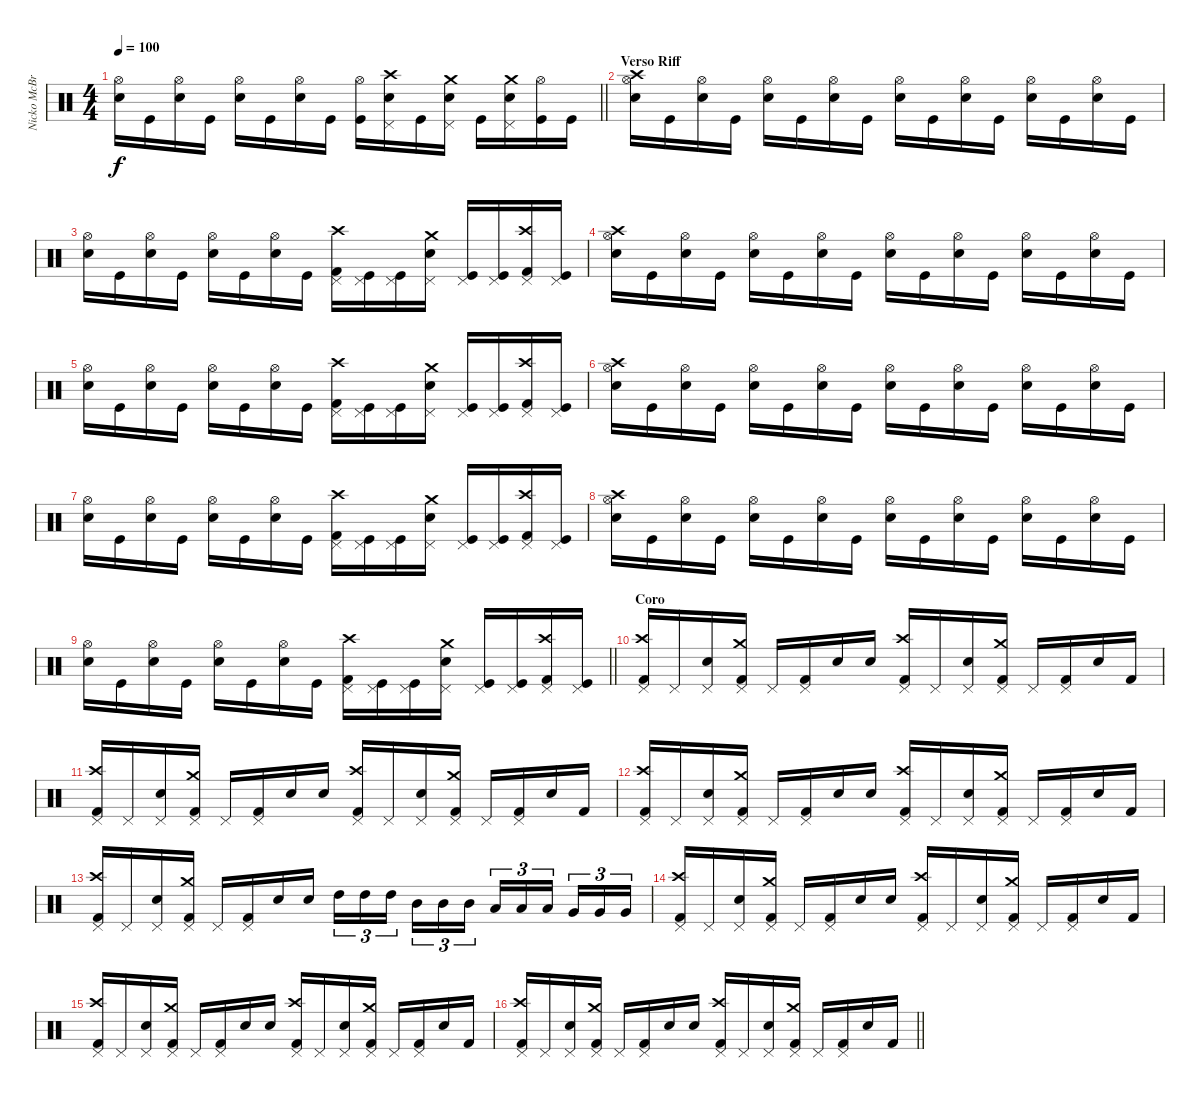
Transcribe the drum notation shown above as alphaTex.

\track ("Nicko McBrain" "Nicko McBr") {instrument percussion}
\staff {score}
\articulation defaults
\ts (4 4)
\tempo 100
\clef neutral
\barLineRight lightlight
\ks c
("Snare (hit) 2" "Hi-Hat (open)").16{dy f} "Kick (hit)".16 ("Snare (hit) 2" "Hi-Hat (open)").16 "Kick (hit)".16 ("Snare (hit) 2" "Hi-Hat (open)").16 "Kick (hit)".16 ("Snare (hit) 2" "Hi-Hat (open)").16 "Kick (hit)".16 ("Kick (hit)" "Hi-Hat (open)").16 ("Snare (hit) 2" "Pedal Hi-Hat (hit)" "Crash high (hit)").16 "Kick (hit)".16 ("Snare (hit) 2" "Pedal Hi-Hat (hit)" "Crash medium (hit)").16 "Kick (hit)".16 ("Snare (hit) 2" "Pedal Hi-Hat (hit)" "Crash medium (hit)").16 ("Kick (hit)" "Hi-Hat (open)").16 "Kick (hit)".16 |
\section ("" "Verso Riff")
("Snare (hit) 2" "Hi-Hat (open)" "Crash high (hit)").16 "Kick (hit)".16 ("Snare (hit) 2" "Hi-Hat (open)").16 "Kick (hit)".16 ("Snare (hit) 2" "Hi-Hat (open)").16 "Kick (hit)".16 ("Snare (hit) 2" "Hi-Hat (open)").16 "Kick (hit)".16 ("Snare (hit) 2" "Hi-Hat (open)").16 "Kick (hit)".16 ("Snare (hit) 2" "Hi-Hat (open)").16 "Kick (hit)".16 ("Snare (hit) 2" "Hi-Hat (open)").16 "Kick (hit)".16 ("Snare (hit) 2" "Hi-Hat (open)").16 "Kick (hit)".16 |
("Snare (hit) 2" "Hi-Hat (open)").16 "Kick (hit)".16 ("Snare (hit) 2" "Hi-Hat (open)").16 "Kick (hit)".16 ("Snare (hit) 2" "Hi-Hat (open)").16 "Kick (hit)".16 ("Snare (hit) 2" "Hi-Hat (open)").16 "Kick (hit)".16 ("Kick (hit) 2" "Pedal Hi-Hat (hit)" "Crash high (hit)").16 ("Kick (hit)" "Pedal Hi-Hat (hit)").16 ("Kick (hit)" "Pedal Hi-Hat (hit)").16 ("Snare (hit) 2" "Pedal Hi-Hat (hit)" "Crash medium (hit)").16 ("Kick (hit)" "Pedal Hi-Hat (hit)").16 ("Kick (hit)" "Pedal Hi-Hat (hit)").16 ("Kick (hit) 2" "Pedal Hi-Hat (hit)" "Crash high (hit)").16 ("Kick (hit)" "Pedal Hi-Hat (hit)").16 |
("Snare (hit) 2" "Hi-Hat (open)" "Crash high (hit)").16 "Kick (hit)".16 ("Snare (hit) 2" "Hi-Hat (open)").16 "Kick (hit)".16 ("Snare (hit) 2" "Hi-Hat (open)").16 "Kick (hit)".16 ("Snare (hit) 2" "Hi-Hat (open)").16 "Kick (hit)".16 ("Snare (hit) 2" "Hi-Hat (open)").16 "Kick (hit)".16 ("Snare (hit) 2" "Hi-Hat (open)").16 "Kick (hit)".16 ("Snare (hit) 2" "Hi-Hat (open)").16 "Kick (hit)".16 ("Snare (hit) 2" "Hi-Hat (open)").16 "Kick (hit)".16 |
("Snare (hit) 2" "Hi-Hat (open)").16 "Kick (hit)".16 ("Snare (hit) 2" "Hi-Hat (open)").16 "Kick (hit)".16 ("Snare (hit) 2" "Hi-Hat (open)").16 "Kick (hit)".16 ("Snare (hit) 2" "Hi-Hat (open)").16 "Kick (hit)".16 ("Kick (hit) 2" "Pedal Hi-Hat (hit)" "Crash high (hit)").16 ("Kick (hit)" "Pedal Hi-Hat (hit)").16 ("Kick (hit)" "Pedal Hi-Hat (hit)").16 ("Snare (hit) 2" "Pedal Hi-Hat (hit)" "Crash medium (hit)").16 ("Kick (hit)" "Pedal Hi-Hat (hit)").16 ("Kick (hit)" "Pedal Hi-Hat (hit)").16 ("Kick (hit) 2" "Pedal Hi-Hat (hit)" "Crash high (hit)").16 ("Kick (hit)" "Pedal Hi-Hat (hit)").16 |
("Snare (hit) 2" "Hi-Hat (open)" "Crash high (hit)").16 "Kick (hit)".16 ("Snare (hit) 2" "Hi-Hat (open)").16 "Kick (hit)".16 ("Snare (hit) 2" "Hi-Hat (open)").16 "Kick (hit)".16 ("Snare (hit) 2" "Hi-Hat (open)").16 "Kick (hit)".16 ("Snare (hit) 2" "Hi-Hat (open)").16 "Kick (hit)".16 ("Snare (hit) 2" "Hi-Hat (open)").16 "Kick (hit)".16 ("Snare (hit) 2" "Hi-Hat (open)").16 "Kick (hit)".16 ("Snare (hit) 2" "Hi-Hat (open)").16 "Kick (hit)".16 |
("Snare (hit) 2" "Hi-Hat (open)").16 "Kick (hit)".16 ("Snare (hit) 2" "Hi-Hat (open)").16 "Kick (hit)".16 ("Snare (hit) 2" "Hi-Hat (open)").16 "Kick (hit)".16 ("Snare (hit) 2" "Hi-Hat (open)").16 "Kick (hit)".16 ("Kick (hit) 2" "Pedal Hi-Hat (hit)" "Crash high (hit)").16 ("Kick (hit)" "Pedal Hi-Hat (hit)").16 ("Kick (hit)" "Pedal Hi-Hat (hit)").16 ("Snare (hit) 2" "Pedal Hi-Hat (hit)" "Crash medium (hit)").16 ("Kick (hit)" "Pedal Hi-Hat (hit)").16 ("Kick (hit)" "Pedal Hi-Hat (hit)").16 ("Kick (hit) 2" "Pedal Hi-Hat (hit)" "Crash high (hit)").16 ("Kick (hit)" "Pedal Hi-Hat (hit)").16 |
("Snare (hit) 2" "Hi-Hat (open)" "Crash high (hit)").16 "Kick (hit)".16 ("Snare (hit) 2" "Hi-Hat (open)").16 "Kick (hit)".16 ("Snare (hit) 2" "Hi-Hat (open)").16 "Kick (hit)".16 ("Snare (hit) 2" "Hi-Hat (open)").16 "Kick (hit)".16 ("Snare (hit) 2" "Hi-Hat (open)").16 "Kick (hit)".16 ("Snare (hit) 2" "Hi-Hat (open)").16 "Kick (hit)".16 ("Snare (hit) 2" "Hi-Hat (open)").16 "Kick (hit)".16 ("Snare (hit) 2" "Hi-Hat (open)").16 "Kick (hit)".16 |
\barLineRight lightlight
("Snare (hit) 2" "Hi-Hat (open)").16 "Kick (hit)".16 ("Snare (hit) 2" "Hi-Hat (open)").16 "Kick (hit)".16 ("Snare (hit) 2" "Hi-Hat (open)").16 "Kick (hit)".16 ("Snare (hit) 2" "Hi-Hat (open)").16 "Kick (hit)".16 ("Kick (hit) 2" "Pedal Hi-Hat (hit)" "Crash high (hit)").16 ("Kick (hit)" "Pedal Hi-Hat (hit)").16 ("Kick (hit)" "Pedal Hi-Hat (hit)").16 ("Snare (hit) 2" "Pedal Hi-Hat (hit)" "Crash medium (hit)").16 ("Kick (hit)" "Pedal Hi-Hat (hit)").16 ("Kick (hit)" "Pedal Hi-Hat (hit)").16 ("Kick (hit) 2" "Pedal Hi-Hat (hit)" "Crash high (hit)").16 ("Kick (hit)" "Pedal Hi-Hat (hit)").16 |
\section ("" "Coro")
("Kick (hit) 2" "Pedal Hi-Hat (hit)" "Crash high (hit)").16 "Pedal Hi-Hat (hit)".16 ("Snare (hit) 2" "Pedal Hi-Hat (hit)").16 ("Kick (hit) 2" "Pedal Hi-Hat (hit)" "Crash medium (hit)").16 "Pedal Hi-Hat (hit)".16 ("Kick (hit) 2" "Pedal Hi-Hat (hit)").16 "Snare (hit) 2".16 "Snare (hit) 2".16 ("Kick (hit) 2" "Pedal Hi-Hat (hit)" "Crash high (hit)").16 "Pedal Hi-Hat (hit)".16 ("Snare (hit) 2" "Pedal Hi-Hat (hit)").16 ("Kick (hit) 2" "Pedal Hi-Hat (hit)" "Crash medium (hit)").16 "Pedal Hi-Hat (hit)".16 ("Kick (hit) 2" "Pedal Hi-Hat (hit)").16 "Snare (hit) 2".16 "Kick (hit) 2".16 |
("Kick (hit) 2" "Pedal Hi-Hat (hit)" "Crash high (hit)").16 "Pedal Hi-Hat (hit)".16 ("Snare (hit) 2" "Pedal Hi-Hat (hit)").16 ("Kick (hit) 2" "Pedal Hi-Hat (hit)" "Crash medium (hit)").16 "Pedal Hi-Hat (hit)".16 ("Kick (hit) 2" "Pedal Hi-Hat (hit)").16 "Snare (hit) 2".16 "Snare (hit) 2".16 ("Kick (hit) 2" "Pedal Hi-Hat (hit)" "Crash high (hit)").16 "Pedal Hi-Hat (hit)".16 ("Snare (hit) 2" "Pedal Hi-Hat (hit)").16 ("Kick (hit) 2" "Pedal Hi-Hat (hit)" "Crash medium (hit)").16 "Pedal Hi-Hat (hit)".16 ("Kick (hit) 2" "Pedal Hi-Hat (hit)").16 "Snare (hit) 2".16 "Kick (hit) 2".16 |
("Kick (hit) 2" "Pedal Hi-Hat (hit)" "Crash high (hit)").16 "Pedal Hi-Hat (hit)".16 ("Snare (hit) 2" "Pedal Hi-Hat (hit)").16 ("Kick (hit) 2" "Pedal Hi-Hat (hit)" "Crash medium (hit)").16 "Pedal Hi-Hat (hit)".16 ("Kick (hit) 2" "Pedal Hi-Hat (hit)").16 "Snare (hit) 2".16 "Snare (hit) 2".16 ("Kick (hit) 2" "Pedal Hi-Hat (hit)" "Crash high (hit)").16 "Pedal Hi-Hat (hit)".16 ("Snare (hit) 2" "Pedal Hi-Hat (hit)").16 ("Kick (hit) 2" "Pedal Hi-Hat (hit)" "Crash medium (hit)").16 "Pedal Hi-Hat (hit)".16 ("Kick (hit) 2" "Pedal Hi-Hat (hit)").16 "Snare (hit) 2".16 "Kick (hit) 2".16 |
("Kick (hit) 2" "Pedal Hi-Hat (hit)" "Crash high (hit)").16 "Pedal Hi-Hat (hit)".16 ("Snare (hit) 2" "Pedal Hi-Hat (hit)").16 ("Kick (hit) 2" "Pedal Hi-Hat (hit)" "Crash medium (hit)").16 "Pedal Hi-Hat (hit)".16 ("Kick (hit) 2" "Pedal Hi-Hat (hit)").16 "Snare (hit) 2".16 "Snare (hit) 2".16 "High Tom (hit)".16{tu (3 2)} "High Tom (hit)".16{tu (3 2)} "High Tom (hit)".16{tu (3 2) beam splitsecondary} "Mid Tom (hit)".16{tu (3 2)} "Mid Tom (hit)".16{tu (3 2)} "Mid Tom (hit)".16{tu (3 2)} "Low Tom (hit)".16{tu (3 2)} "Low Tom (hit)".16{tu (3 2)} "Low Tom (hit)".16{tu (3 2) beam splitsecondary} "Very Low Tom (hit)".16{tu (3 2)} "Very Low Tom (hit)".16{tu (3 2)} "Very Low Tom (hit)".16{tu (3 2)} |
("Kick (hit) 2" "Pedal Hi-Hat (hit)" "Crash high (hit)").16 "Pedal Hi-Hat (hit)".16 ("Snare (hit) 2" "Pedal Hi-Hat (hit)").16 ("Kick (hit) 2" "Pedal Hi-Hat (hit)" "Crash medium (hit)").16 "Pedal Hi-Hat (hit)".16 ("Kick (hit) 2" "Pedal Hi-Hat (hit)").16 "Snare (hit) 2".16 "Snare (hit) 2".16 ("Kick (hit) 2" "Pedal Hi-Hat (hit)" "Crash high (hit)").16 "Pedal Hi-Hat (hit)".16 ("Snare (hit) 2" "Pedal Hi-Hat (hit)").16 ("Kick (hit) 2" "Pedal Hi-Hat (hit)" "Crash medium (hit)").16 "Pedal Hi-Hat (hit)".16 ("Kick (hit) 2" "Pedal Hi-Hat (hit)").16 "Snare (hit) 2".16 "Kick (hit) 2".16 |
("Kick (hit) 2" "Pedal Hi-Hat (hit)" "Crash high (hit)").16 "Pedal Hi-Hat (hit)".16 ("Snare (hit) 2" "Pedal Hi-Hat (hit)").16 ("Kick (hit) 2" "Pedal Hi-Hat (hit)" "Crash medium (hit)").16 "Pedal Hi-Hat (hit)".16 ("Kick (hit) 2" "Pedal Hi-Hat (hit)").16 "Snare (hit) 2".16 "Snare (hit) 2".16 ("Kick (hit) 2" "Pedal Hi-Hat (hit)" "Crash high (hit)").16 "Pedal Hi-Hat (hit)".16 ("Snare (hit) 2" "Pedal Hi-Hat (hit)").16 ("Kick (hit) 2" "Pedal Hi-Hat (hit)" "Crash medium (hit)").16 "Pedal Hi-Hat (hit)".16 ("Kick (hit) 2" "Pedal Hi-Hat (hit)").16 "Snare (hit) 2".16 "Kick (hit) 2".16 |
\barLineRight lightlight
("Kick (hit) 2" "Pedal Hi-Hat (hit)" "Crash high (hit)").16 "Pedal Hi-Hat (hit)".16 ("Snare (hit) 2" "Pedal Hi-Hat (hit)").16 ("Kick (hit) 2" "Pedal Hi-Hat (hit)" "Crash medium (hit)").16 "Pedal Hi-Hat (hit)".16 ("Kick (hit) 2" "Pedal Hi-Hat (hit)").16 "Snare (hit) 2".16 "Snare (hit) 2".16 ("Kick (hit) 2" "Pedal Hi-Hat (hit)" "Crash high (hit)").16 "Pedal Hi-Hat (hit)".16 ("Snare (hit) 2" "Pedal Hi-Hat (hit)").16 ("Kick (hit) 2" "Pedal Hi-Hat (hit)" "Crash medium (hit)").16 "Pedal Hi-Hat (hit)".16 ("Kick (hit) 2" "Pedal Hi-Hat (hit)").16 "Snare (hit) 2".16 "Kick (hit) 2".16
